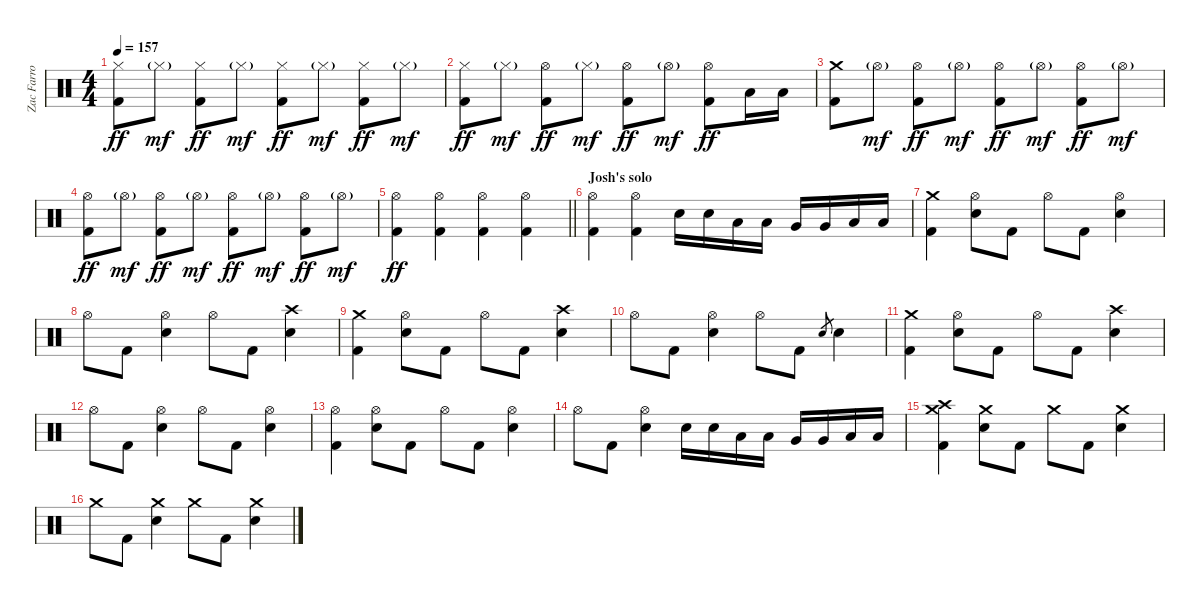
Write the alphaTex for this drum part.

\track ("Zac Farro | Drum" "Zac Farro ") {instrument percussion}
\staff {score}
\articulation defaults
\ts (4 4)
\tempo 157
\clef neutral
\ks c
("Hi-Hat (closed)" "Kick (hit) 2").8{dy ff} "Hi-Hat (closed)"{g}.8{dy mf} ("Hi-Hat (closed)" "Kick (hit) 2").8{dy ff} "Hi-Hat (closed)"{g}.8{dy mf} ("Hi-Hat (closed)" "Kick (hit) 2").8{dy ff} "Hi-Hat (closed)"{g}.8{dy mf} ("Hi-Hat (closed)" "Kick (hit) 2").8{dy ff} "Hi-Hat (closed)"{g}.8{dy mf} |
("Hi-Hat (closed)" "Kick (hit) 2").8{dy ff} "Hi-Hat (closed)"{g}.8{dy mf} ("Hi-Hat (open)" "Kick (hit) 2").8{dy ff} "Hi-Hat (closed)"{g}.8{dy mf} ("Hi-Hat (open)" "Kick (hit) 2").8{dy ff} "Hi-Hat (open)"{g}.8{dy mf} ("Hi-Hat (open)" "Kick (hit) 2").8{dy ff} "Low Floor Tom (hit)".16 "Low Floor Tom (hit)".16 |
("Crash medium (hit)" "Kick (hit) 2").8 "Hi-Hat (open)"{g}.8{dy mf} ("Hi-Hat (open)" "Kick (hit) 2").8{dy ff} "Hi-Hat (open)"{g}.8{dy mf} ("Hi-Hat (open)" "Kick (hit) 2").8{dy ff} "Hi-Hat (open)"{g}.8{dy mf} ("Hi-Hat (open)" "Kick (hit) 2").8{dy ff} "Hi-Hat (open)"{g}.8{dy mf} |
("Hi-Hat (open)" "Kick (hit) 2").8{dy ff} "Hi-Hat (open)"{g}.8{dy mf} ("Hi-Hat (open)" "Kick (hit) 2").8{dy ff} "Hi-Hat (open)"{g}.8{dy mf} ("Hi-Hat (open)" "Kick (hit) 2").8{dy ff} "Hi-Hat (open)"{g}.8{dy mf} ("Hi-Hat (open)" "Kick (hit) 2").8{dy ff} "Hi-Hat (open)"{g}.8{dy mf} |
\barLineRight lightlight
("Hi-Hat (open)" "Kick (hit) 2").4{dy ff} ("Hi-Hat (open)" "Kick (hit) 2").4 ("Hi-Hat (open)" "Kick (hit) 2").4 ("Hi-Hat (open)" "Kick (hit) 2").4 |
\section ("" "Josh's solo")
("Hi-Hat (open)" "Kick (hit) 2").4 ("Hi-Hat (open)" "Kick (hit) 2").4 "Electric Snare (hit)".16 "Electric Snare (hit)".16 "Low Tom (hit)".16 "Low Tom (hit)".16 "Very Low Tom (hit)".16 "Very Low Tom (hit)".16 "Low Floor Tom (hit)".16 "Low Floor Tom (hit)".16 |
("Crash medium (hit)" "Kick (hit) 2").4 ("Hi-Hat (open)" "Electric Snare (hit)").8 "Kick (hit) 2".8 "Hi-Hat (open)".8 "Kick (hit) 2".8 ("Hi-Hat (open)" "Electric Snare (hit)").4 |
"Hi-Hat (open)".8 "Kick (hit) 2".8 ("Hi-Hat (open)" "Electric Snare (hit)").4 "Hi-Hat (open)".8 "Kick (hit) 2".8 ("Crash high (hit)" "Electric Snare (hit)").4 |
("Crash medium (hit)" "Kick (hit) 2").4 ("Hi-Hat (open)" "Electric Snare (hit)").8 "Kick (hit) 2".8 "Hi-Hat (open)".8 "Kick (hit) 2".8 ("Crash high (hit)" "Electric Snare (hit)").4 |
"Hi-Hat (open)".8 "Kick (hit) 2".8 ("Hi-Hat (open)" "Electric Snare (hit)").4 "Hi-Hat (open)".8 "Kick (hit) 2".8 "Electric Snare (hit)".8{gr} "Electric Snare (hit)".4 |
("Crash medium (hit)" "Kick (hit) 2").4 ("Hi-Hat (open)" "Electric Snare (hit)").8 "Kick (hit) 2".8 "Hi-Hat (open)".8 "Kick (hit) 2".8 ("Crash high (hit)" "Electric Snare (hit)").4 |
"Hi-Hat (open)".8 "Kick (hit) 2".8 ("Hi-Hat (open)" "Electric Snare (hit)").4 "Hi-Hat (open)".8 "Kick (hit) 2".8 ("Hi-Hat (open)" "Electric Snare (hit)").4 |
("Hi-Hat (open)" "Kick (hit) 2").4 ("Hi-Hat (open)" "Electric Snare (hit)").8 "Kick (hit) 2".8 "Hi-Hat (open)".8 "Kick (hit) 2".8 ("Hi-Hat (open)" "Electric Snare (hit)").4 |
"Hi-Hat (open)".8 "Kick (hit) 2".8 ("Hi-Hat (open)" "Electric Snare (hit)").4 "Electric Snare (hit)".16 "Electric Snare (hit)".16 "Low Tom (hit)".16 "Low Tom (hit)".16 "Very Low Tom (hit)".16 "Very Low Tom (hit)".16 "Low Floor Tom (hit)".16 "Low Floor Tom (hit)".16 |
("Crash high (hit)" "Crash medium (hit)" "Kick (hit) 2").4 ("Crash medium (hit)" "Electric Snare (hit)").8 "Kick (hit) 2".8 "Crash medium (hit)".8 "Kick (hit) 2".8 ("Crash medium (hit)" "Electric Snare (hit)").4 |
"Crash medium (hit)".8 "Kick (hit) 2".8 ("Crash medium (hit)" "Electric Snare (hit)").4 "Crash medium (hit)".8 "Kick (hit) 2".8 ("Crash medium (hit)" "Electric Snare (hit)").4
